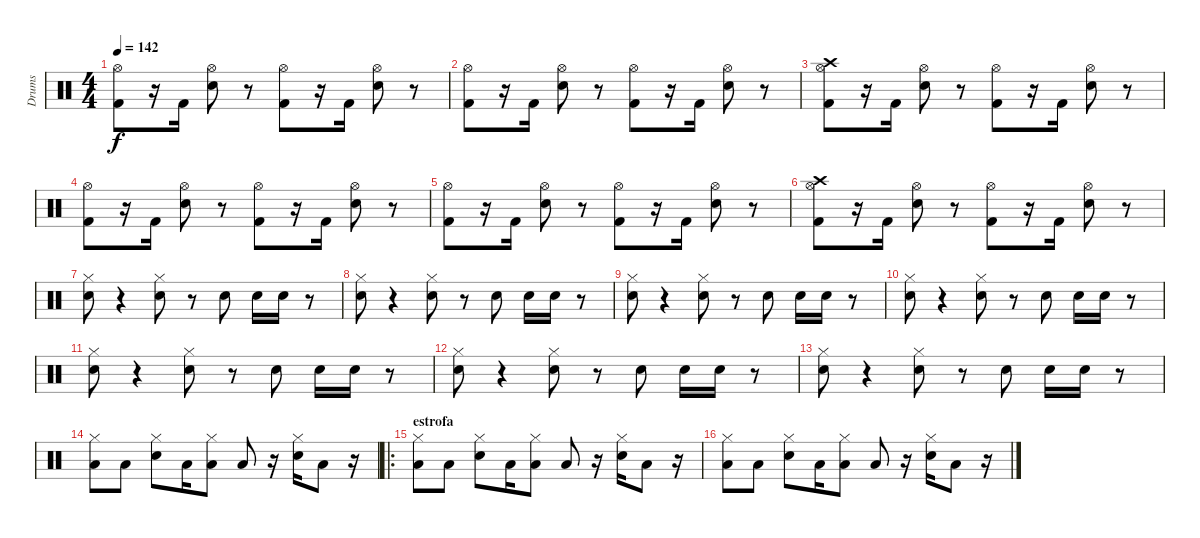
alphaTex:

\track ("Drums" "Drums") {instrument percussion}
\staff {score}
\articulation defaults
\ts (4 4)
\tempo 142
\clef neutral
\ks c
("Kick (hit) 2" "Hi-Hat (open)").8{dy f} r.16 "Kick (hit) 2".16 ("Snare (hit) 2" "Hi-Hat (open)").8 r.8 ("Kick (hit) 2" "Hi-Hat (open)").8 r.16 "Kick (hit) 2".16 ("Snare (hit) 2" "Hi-Hat (open)").8 r.8 |
("Kick (hit) 2" "Hi-Hat (open)").8 r.16 "Kick (hit) 2".16 ("Snare (hit) 2" "Hi-Hat (open)").8 r.8 ("Kick (hit) 2" "Hi-Hat (open)").8 r.16 "Kick (hit) 2".16 ("Snare (hit) 2" "Hi-Hat (open)").8 r.8 |
("Kick (hit) 2" "Hi-Hat (open)" "Crash high (hit)").8 r.16 "Kick (hit) 2".16 ("Snare (hit) 2" "Hi-Hat (open)").8 r.8 ("Kick (hit) 2" "Hi-Hat (open)").8 r.16 "Kick (hit) 2".16 ("Snare (hit) 2" "Hi-Hat (open)").8 r.8 |
("Kick (hit) 2" "Hi-Hat (open)").8 r.16 "Kick (hit) 2".16 ("Snare (hit) 2" "Hi-Hat (open)").8 r.8 ("Kick (hit) 2" "Hi-Hat (open)").8 r.16 "Kick (hit) 2".16 ("Snare (hit) 2" "Hi-Hat (open)").8 r.8 |
("Kick (hit) 2" "Hi-Hat (open)").8 r.16 "Kick (hit) 2".16 ("Snare (hit) 2" "Hi-Hat (open)").8 r.8 ("Kick (hit) 2" "Hi-Hat (open)").8 r.16 "Kick (hit) 2".16 ("Snare (hit) 2" "Hi-Hat (open)").8 r.8 |
("Kick (hit) 2" "Hi-Hat (open)" "Crash high (hit)").8 r.16 "Kick (hit) 2".16 ("Snare (hit) 2" "Hi-Hat (open)").8 r.8 ("Kick (hit) 2" "Hi-Hat (open)").8 r.16 "Kick (hit) 2".16 ("Snare (hit) 2" "Hi-Hat (open)").8 r.8 |
("Snare (hit) 2" "Hi-Hat (closed)").8 r.4 ("Snare (hit) 2" "Hi-Hat (closed)").8 r.8 "Snare (hit) 2".8 "Snare (hit) 2".16 "Snare (hit) 2".16 r.8 |
("Snare (hit) 2" "Hi-Hat (closed)").8 r.4 ("Snare (hit) 2" "Hi-Hat (closed)").8 r.8 "Snare (hit) 2".8 "Snare (hit) 2".16 "Snare (hit) 2".16 r.8 |
("Snare (hit) 2" "Hi-Hat (closed)").8 r.4 ("Snare (hit) 2" "Hi-Hat (closed)").8 r.8 "Snare (hit) 2".8 "Snare (hit) 2".16 "Snare (hit) 2".16 r.8 |
("Snare (hit) 2" "Hi-Hat (closed)").8 r.4 ("Snare (hit) 2" "Hi-Hat (closed)").8 r.8 "Snare (hit) 2".8 "Snare (hit) 2".16 "Snare (hit) 2".16 r.8 |
("Snare (hit) 2" "Hi-Hat (closed)").8 r.4 ("Snare (hit) 2" "Hi-Hat (closed)").8 r.8 "Snare (hit) 2".8 "Snare (hit) 2".16 "Snare (hit) 2".16 r.8 |
("Snare (hit) 2" "Hi-Hat (closed)").8 r.4 ("Snare (hit) 2" "Hi-Hat (closed)").8 r.8 "Snare (hit) 2".8 "Snare (hit) 2".16 "Snare (hit) 2".16 r.8 |
("Snare (hit) 2" "Hi-Hat (closed)").8 r.4 ("Snare (hit) 2" "Hi-Hat (closed)").8 r.8 "Snare (hit) 2".8 "Snare (hit) 2".16 "Snare (hit) 2".16 r.8 |
("Low Tom (hit)" "Hi-Hat (closed)").8 "Low Tom (hit)".8 ("Snare (hit) 2" "Hi-Hat (closed)").8 "Low Tom (hit)".16 ("Low Tom (hit)" "Hi-Hat (closed)").8 "Low Tom (hit)".8 r.16 ("Snare (hit) 2" "Hi-Hat (closed)").16 "Low Tom (hit)".8 r.16 |
\ro
\section ("" "estrofa")
("Low Tom (hit)" "Hi-Hat (closed)").8 "Low Tom (hit)".8 ("Snare (hit) 2" "Hi-Hat (closed)").8 "Low Tom (hit)".16 ("Low Tom (hit)" "Hi-Hat (closed)").8 "Low Tom (hit)".8 r.16 ("Snare (hit) 2" "Hi-Hat (closed)").16 "Low Tom (hit)".8 r.16 |
("Low Tom (hit)" "Hi-Hat (closed)").8 "Low Tom (hit)".8 ("Snare (hit) 2" "Hi-Hat (closed)").8 "Low Tom (hit)".16 ("Low Tom (hit)" "Hi-Hat (closed)").8 "Low Tom (hit)".8 r.16 ("Snare (hit) 2" "Hi-Hat (closed)").16 "Low Tom (hit)".8 r.16
